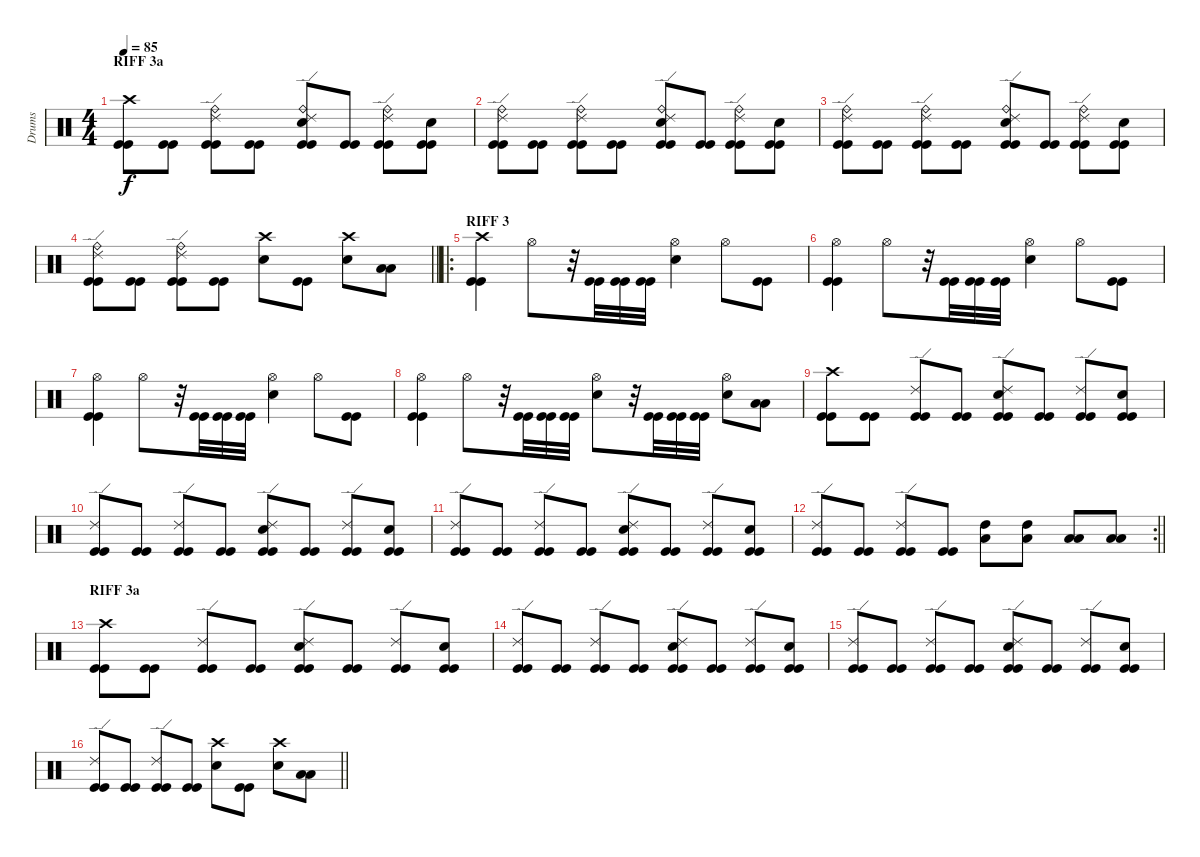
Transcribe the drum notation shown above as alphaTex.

\track ("Drums" "Drums") {instrument percussion}
\staff {score}
\articulation defaults
\ts (4 4)
\section ("" "RIFF 3a")
\tempo 85
\clef neutral
\ks c
("Crash high (hit)" "Kick (hit)" "Kick (hit)").8{dy f} ("Kick (hit)" "Kick (hit)").8 ("Ride (edge) 2" "Ride (bell)" "Kick (hit)" "Kick (hit)").8 ("Kick (hit)" "Kick (hit)").8 ("Ride (edge) 2" "Ride (bell)" "Snare (hit) 2" "Kick (hit)" "Kick (hit)").8 ("Kick (hit)" "Kick (hit)").8 ("Ride (edge) 2" "Ride (bell)" "Kick (hit)" "Kick (hit)").8 ("Snare (hit) 2" "Kick (hit)" "Kick (hit)").8 |
("Ride (edge) 2" "Ride (bell)" "Kick (hit)" "Kick (hit)").8 ("Kick (hit)" "Kick (hit)").8 ("Ride (edge) 2" "Ride (bell)" "Kick (hit)" "Kick (hit)").8 ("Kick (hit)" "Kick (hit)").8 ("Ride (edge) 2" "Ride (bell)" "Snare (hit) 2" "Kick (hit)" "Kick (hit)").8 ("Kick (hit)" "Kick (hit)").8 ("Ride (edge) 2" "Ride (bell)" "Kick (hit)" "Kick (hit)").8 ("Snare (hit) 2" "Kick (hit)" "Kick (hit)").8 |
("Ride (edge) 2" "Ride (bell)" "Kick (hit)" "Kick (hit)").8 ("Kick (hit)" "Kick (hit)").8 ("Ride (edge) 2" "Ride (bell)" "Kick (hit)" "Kick (hit)").8 ("Kick (hit)" "Kick (hit)").8 ("Ride (edge) 2" "Ride (bell)" "Snare (hit) 2" "Kick (hit)" "Kick (hit)").8 ("Kick (hit)" "Kick (hit)").8 ("Ride (edge) 2" "Ride (bell)" "Kick (hit)" "Kick (hit)").8 ("Snare (hit) 2" "Kick (hit)" "Kick (hit)").8 |
\barLineRight lightlight
("Ride (edge) 2" "Ride (bell)" "Kick (hit)" "Kick (hit)").8 ("Kick (hit)" "Kick (hit)").8 ("Ride (edge) 2" "Ride (bell)" "Kick (hit)" "Kick (hit)").8 ("Kick (hit)" "Kick (hit)").8 ("Crash high (hit)" "Snare (hit) 2").8 ("Kick (hit)" "Kick (hit)").8 ("Crash high (hit)" "Snare (hit) 2").8 ("Low Floor Tom (hit)" "Low Tom (hit)").8 |
\ro
\section ("" "RIFF 3")
("Crash high (hit)" "Kick (hit)" "Kick (hit)").4 "Hi-Hat (open)".8 r.32 ("Kick (hit)" "Kick (hit)").32 ("Kick (hit)" "Kick (hit)").32 ("Kick (hit)" "Kick (hit)").32 ("Hi-Hat (open)" "Snare (hit) 2").4 "Hi-Hat (open)".8 ("Kick (hit)" "Kick (hit)").8 |
("Hi-Hat (open)" "Kick (hit)" "Kick (hit)").4 "Hi-Hat (open)".8 r.32 ("Kick (hit)" "Kick (hit)").32 ("Kick (hit)" "Kick (hit)").32 ("Kick (hit)" "Kick (hit)").32 ("Hi-Hat (open)" "Snare (hit) 2").4 "Hi-Hat (open)".8 ("Kick (hit)" "Kick (hit)").8 |
("Hi-Hat (open)" "Kick (hit)" "Kick (hit)").4 "Hi-Hat (open)".8 r.32 ("Kick (hit)" "Kick (hit)").32 ("Kick (hit)" "Kick (hit)").32 ("Kick (hit)" "Kick (hit)").32 ("Hi-Hat (open)" "Snare (hit) 2").4 "Hi-Hat (open)".8 ("Kick (hit)" "Kick (hit)").8 |
("Hi-Hat (open)" "Kick (hit)" "Kick (hit)").4 "Hi-Hat (open)".8 r.32 ("Kick (hit)" "Kick (hit)").32 ("Kick (hit)" "Kick (hit)").32 ("Kick (hit)" "Kick (hit)").32 ("Hi-Hat (open)" "Snare (hit) 2").8 r.32 ("Kick (hit)" "Kick (hit)").32 ("Kick (hit)" "Kick (hit)").32 ("Kick (hit)" "Kick (hit)").32 ("Hi-Hat (open)" "Snare (hit) 2").8 ("Low Floor Tom (hit)" "Low Tom (hit)").8 |
("Crash high (hit)" "Kick (hit)" "Kick (hit)").8 ("Kick (hit)" "Kick (hit)").8 ("Ride (edge) 2" "Kick (hit)" "Kick (hit)").8 ("Kick (hit)" "Kick (hit)").8 ("Ride (edge) 2" "Snare (hit) 2" "Kick (hit)" "Kick (hit)").8 ("Kick (hit)" "Kick (hit)").8 ("Ride (edge) 2" "Kick (hit)" "Kick (hit)").8 ("Snare (hit) 2" "Kick (hit)" "Kick (hit)").8 |
("Ride (edge) 2" "Kick (hit)" "Kick (hit)").8 ("Kick (hit)" "Kick (hit)").8 ("Ride (edge) 2" "Kick (hit)" "Kick (hit)").8 ("Kick (hit)" "Kick (hit)").8 ("Ride (edge) 2" "Snare (hit) 2" "Kick (hit)" "Kick (hit)").8 ("Kick (hit)" "Kick (hit)").8 ("Ride (edge) 2" "Kick (hit)" "Kick (hit)").8 ("Snare (hit) 2" "Kick (hit)" "Kick (hit)").8 |
("Ride (edge) 2" "Kick (hit)" "Kick (hit)").8 ("Kick (hit)" "Kick (hit)").8 ("Ride (edge) 2" "Kick (hit)" "Kick (hit)").8 ("Kick (hit)" "Kick (hit)").8 ("Ride (edge) 2" "Snare (hit) 2" "Kick (hit)" "Kick (hit)").8 ("Kick (hit)" "Kick (hit)").8 ("Ride (edge) 2" "Kick (hit)" "Kick (hit)").8 ("Snare (hit) 2" "Kick (hit)" "Kick (hit)").8 |
\rc 2
\barLineRight lightlight
("Ride (edge) 2" "Kick (hit)" "Kick (hit)").8 ("Kick (hit)" "Kick (hit)").8 ("Ride (edge) 2" "Kick (hit)" "Kick (hit)").8 ("Kick (hit)" "Kick (hit)").8 ("Low Tom (hit)" "High Tom (hit)").8 ("Low Tom (hit)" "High Tom (hit)").8 ("Low Floor Tom (hit)" "Low Tom (hit)").8 ("Low Floor Tom (hit)" "Low Tom (hit)").8 |
\section ("" "RIFF 3a")
("Crash high (hit)" "Kick (hit)" "Kick (hit)").8 ("Kick (hit)" "Kick (hit)").8 ("Ride (edge) 2" "Kick (hit)" "Kick (hit)").8 ("Kick (hit)" "Kick (hit)").8 ("Ride (edge) 2" "Snare (hit) 2" "Kick (hit)" "Kick (hit)").8 ("Kick (hit)" "Kick (hit)").8 ("Ride (edge) 2" "Kick (hit)" "Kick (hit)").8 ("Snare (hit) 2" "Kick (hit)" "Kick (hit)").8 |
("Ride (edge) 2" "Kick (hit)" "Kick (hit)").8 ("Kick (hit)" "Kick (hit)").8 ("Ride (edge) 2" "Kick (hit)" "Kick (hit)").8 ("Kick (hit)" "Kick (hit)").8 ("Ride (edge) 2" "Snare (hit) 2" "Kick (hit)" "Kick (hit)").8 ("Kick (hit)" "Kick (hit)").8 ("Ride (edge) 2" "Kick (hit)" "Kick (hit)").8 ("Snare (hit) 2" "Kick (hit)" "Kick (hit)").8 |
("Ride (edge) 2" "Kick (hit)" "Kick (hit)").8 ("Kick (hit)" "Kick (hit)").8 ("Ride (edge) 2" "Kick (hit)" "Kick (hit)").8 ("Kick (hit)" "Kick (hit)").8 ("Ride (edge) 2" "Snare (hit) 2" "Kick (hit)" "Kick (hit)").8 ("Kick (hit)" "Kick (hit)").8 ("Ride (edge) 2" "Kick (hit)" "Kick (hit)").8 ("Snare (hit) 2" "Kick (hit)" "Kick (hit)").8 |
\barLineRight lightlight
("Ride (edge) 2" "Kick (hit)" "Kick (hit)").8 ("Kick (hit)" "Kick (hit)").8 ("Ride (edge) 2" "Kick (hit)" "Kick (hit)").8 ("Kick (hit)" "Kick (hit)").8 ("Crash high (hit)" "Snare (hit) 2").8 ("Kick (hit)" "Kick (hit)").8 ("Crash high (hit)" "Snare (hit) 2").8 ("Low Floor Tom (hit)" "Low Tom (hit)").8
